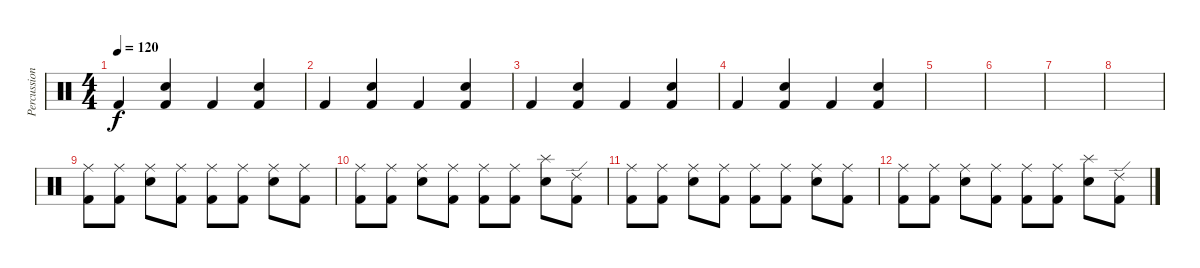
\track ("Percussion" "Percussion") {instrument percussion}
\staff {score}
\articulation defaults
\ts (4 4)
\tempo 120
\clef neutral
\ks c "Kick (hit) 2".4{dy f}
("Electric Snare (hit)" "Kick (hit) 2").4 "Kick (hit) 2".4 ("Electric Snare (hit)" "Kick (hit) 2").4 |
"Kick (hit) 2".4 ("Electric Snare (hit)" "Kick (hit) 2").4 "Kick (hit) 2".4 ("Electric Snare (hit)" "Kick (hit) 2").4 |
"Kick (hit) 2".4 ("Electric Snare (hit)" "Kick (hit) 2").4 "Kick (hit) 2".4 ("Electric Snare (hit)" "Kick (hit) 2").4 |
"Kick (hit) 2".4 ("Electric Snare (hit)" "Kick (hit) 2").4 "Kick (hit) 2".4 ("Electric Snare (hit)" "Kick (hit) 2").4 |
|
|
|
|
("Ride (middle)" "Kick (hit) 2").8 ("Ride (middle)" "Kick (hit) 2").8 ("Ride (middle)" "Electric Snare (hit)").8 ("Ride (middle)" "Kick (hit) 2").8 ("Ride (middle)" "Kick (hit) 2").8 ("Ride (middle)" "Kick (hit) 2").8 ("Ride (middle)" "Electric Snare (hit)").8 ("Ride (middle)" "Kick (hit) 2").8 |
("Ride (middle)" "Kick (hit) 2").8 ("Ride (middle)" "Kick (hit) 2").8 ("Ride (middle)" "Electric Snare (hit)").8 ("Ride (middle)" "Kick (hit) 2").8 ("Ride (middle)" "Kick (hit) 2").8 ("Ride (middle)" "Kick (hit) 2").8 ("Splash (hit)" "Electric Snare (hit)").8 ("Ride (edge) 2" "Kick (hit) 2").8 |
("Ride (middle)" "Kick (hit) 2").8 ("Ride (middle)" "Kick (hit) 2").8 ("Ride (middle)" "Electric Snare (hit)").8 ("Ride (middle)" "Kick (hit) 2").8 ("Ride (middle)" "Kick (hit) 2").8 ("Ride (middle)" "Kick (hit) 2").8 ("Ride (middle)" "Electric Snare (hit)").8 ("Ride (middle)" "Kick (hit) 2").8 |
("Ride (middle)" "Kick (hit) 2").8 ("Ride (middle)" "Kick (hit) 2").8 ("Ride (middle)" "Electric Snare (hit)").8 ("Ride (middle)" "Kick (hit) 2").8 ("Ride (middle)" "Kick (hit) 2").8 ("Ride (middle)" "Kick (hit) 2").8 ("Splash (hit)" "Electric Snare (hit)").8 ("Ride (edge) 2" "Kick (hit) 2").8
